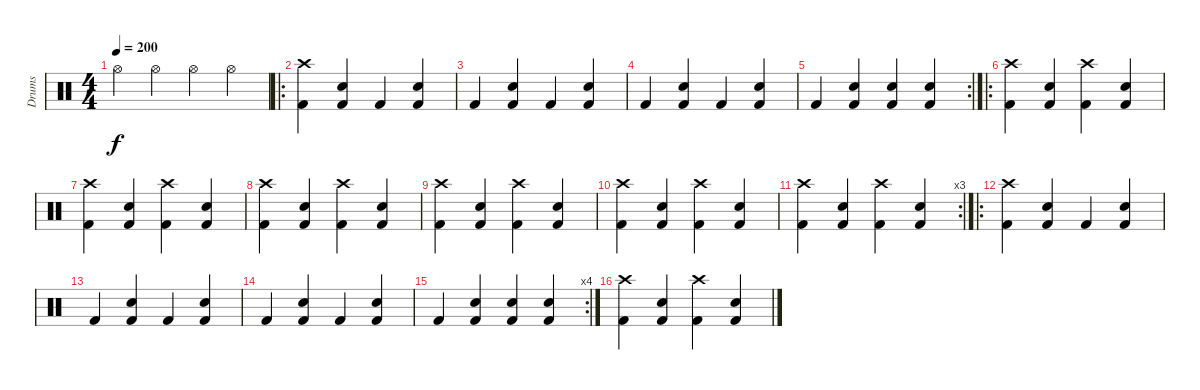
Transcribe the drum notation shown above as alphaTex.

\track ("Drums" "Drums") {instrument percussion}
\staff {score}
\articulation defaults
\ts (4 4)
\tempo 200
\clef neutral
\ks c "Hi-Hat (open)".4{dy f} "Hi-Hat (open)".4 "Hi-Hat (open)".4 "Hi-Hat (open)".4
|
\ro
("Crash high (hit)" "Kick (hit) 2").4 ("Electric Snare (hit)" "Kick (hit) 2").4 "Kick (hit) 2".4 ("Electric Snare (hit)" "Kick (hit) 2").4 |
"Kick (hit) 2".4 ("Electric Snare (hit)" "Kick (hit) 2").4 "Kick (hit) 2".4 ("Electric Snare (hit)" "Kick (hit) 2").4 |
"Kick (hit) 2".4 ("Electric Snare (hit)" "Kick (hit) 2").4 "Kick (hit) 2".4 ("Electric Snare (hit)" "Kick (hit) 2").4 |
\rc 2 "Kick (hit) 2".4
("Electric Snare (hit)" "Kick (hit) 2").4 ("Electric Snare (hit)" "Kick (hit) 2").4 ("Electric Snare (hit)" "Kick (hit) 2").4 |
\ro
("Crash high (hit)" "Kick (hit) 2").4 ("Electric Snare (hit)" "Kick (hit) 2").4 ("Crash high (hit)" "Kick (hit) 2").4 ("Electric Snare (hit)" "Kick (hit) 2").4 |
("Crash high (hit)" "Kick (hit) 2").4 ("Electric Snare (hit)" "Kick (hit) 2").4 ("Crash high (hit)" "Kick (hit) 2").4 ("Electric Snare (hit)" "Kick (hit) 2").4 |
("Crash high (hit)" "Kick (hit) 2").4 ("Electric Snare (hit)" "Kick (hit) 2").4 ("Crash high (hit)" "Kick (hit) 2").4 ("Electric Snare (hit)" "Kick (hit) 2").4 |
("Crash high (hit)" "Kick (hit) 2").4 ("Electric Snare (hit)" "Kick (hit) 2").4 ("Crash high (hit)" "Kick (hit) 2").4 ("Electric Snare (hit)" "Kick (hit) 2").4 |
("Crash high (hit)" "Kick (hit) 2").4 ("Electric Snare (hit)" "Kick (hit) 2").4 ("Crash high (hit)" "Kick (hit) 2").4 ("Electric Snare (hit)" "Kick (hit) 2").4 |
\rc 3
("Crash high (hit)" "Kick (hit) 2").4 ("Electric Snare (hit)" "Kick (hit) 2").4 ("Crash high (hit)" "Kick (hit) 2").4 ("Electric Snare (hit)" "Kick (hit) 2").4 |
\ro
("Crash high (hit)" "Kick (hit) 2").4 ("Electric Snare (hit)" "Kick (hit) 2").4 "Kick (hit) 2".4 ("Electric Snare (hit)" "Kick (hit) 2").4 |
"Kick (hit) 2".4 ("Electric Snare (hit)" "Kick (hit) 2").4 "Kick (hit) 2".4 ("Electric Snare (hit)" "Kick (hit) 2").4 |
"Kick (hit) 2".4 ("Electric Snare (hit)" "Kick (hit) 2").4 "Kick (hit) 2".4 ("Electric Snare (hit)" "Kick (hit) 2").4 |
\rc 4 "Kick (hit) 2".4
("Electric Snare (hit)" "Kick (hit) 2").4 ("Electric Snare (hit)" "Kick (hit) 2").4 ("Electric Snare (hit)" "Kick (hit) 2").4 |
("Crash high (hit)" "Kick (hit) 2").4 ("Electric Snare (hit)" "Kick (hit) 2").4 ("Crash high (hit)" "Kick (hit) 2").4 ("Electric Snare (hit)" "Kick (hit) 2").4
